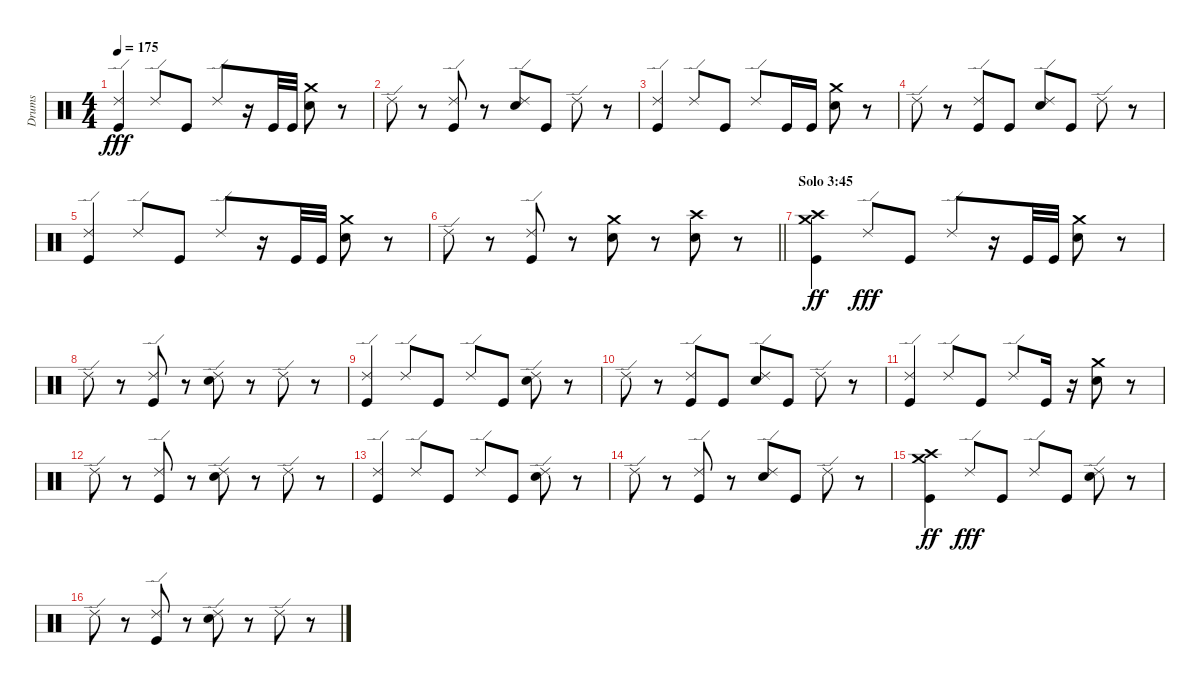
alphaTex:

\track ("Drums" "Drums") {instrument percussion}
\staff {score}
\articulation defaults
\ts (4 4)
\tempo 175
\clef neutral
\ks c
("Kick (hit)" "Ride (edge) 2").4{dy fff} "Ride (edge) 2".8 "Kick (hit)".8 "Ride (edge) 2".8 r.16 "Kick (hit)".32 "Kick (hit)".32 ("Electric Snare (hit)" "Crash medium (hit)").8 r.8 |
"Ride (edge) 2".8 r.8 ("Kick (hit)" "Ride (edge) 2").8 r.8 ("Electric Snare (hit)" "Ride (edge) 2").8 "Kick (hit)".8 "Ride (edge) 2".8 r.8 |
("Kick (hit)" "Ride (edge) 2").4 "Ride (edge) 2".8 "Kick (hit)".8 "Ride (edge) 2".8 "Kick (hit)".16 "Kick (hit)".16 ("Electric Snare (hit)" "Crash medium (hit)").8 r.8 |
"Ride (edge) 2".8 r.8 ("Kick (hit)" "Ride (edge) 2").8 "Kick (hit)".8 ("Electric Snare (hit)" "Ride (edge) 2").8 "Kick (hit)".8 "Ride (edge) 2".8 r.8 |
("Kick (hit)" "Ride (edge) 2").4 "Ride (edge) 2".8 "Kick (hit)".8 "Ride (edge) 2".8 r.16 "Kick (hit)".32 "Kick (hit)".32 ("Electric Snare (hit)" "Crash medium (hit)").8 r.8 |
\barLineRight lightlight "Ride (edge) 2".8
r.8 ("Kick (hit)" "Ride (edge) 2").8 r.8 ("Electric Snare (hit)" "Crash medium (hit)").8 r.8 ("Electric Snare (hit)" "Crash high (hit)").8 r.8 |
\section ("" "Solo 3:45")
("Kick (hit)" "Crash high (hit)" "Crash medium (hit)").4{dy ff} "Ride (edge) 2".8{dy fff} "Kick (hit)".8 "Ride (edge) 2".8 r.16 "Kick (hit)".32 "Kick (hit)".32 ("Electric Snare (hit)" "Crash medium (hit)").8 r.8 |
"Ride (edge) 2".8 r.8 ("Kick (hit)" "Ride (edge) 2").8 r.8 ("Electric Snare (hit)" "Ride (edge) 2").8 r.8 "Ride (edge) 2".8 r.8 |
("Kick (hit)" "Ride (edge) 2").4 "Ride (edge) 2".8 "Kick (hit)".8 "Ride (edge) 2".8 "Kick (hit)".8 ("Electric Snare (hit)" "Ride (edge) 2").8 r.8 |
"Ride (edge) 2".8 r.8 ("Kick (hit)" "Ride (edge) 2").8 "Kick (hit)".8 ("Electric Snare (hit)" "Ride (edge) 2").8 "Kick (hit)".8 "Ride (edge) 2".8 r.8 |
("Kick (hit)" "Ride (edge) 2").4 "Ride (edge) 2".8 "Kick (hit)".8 "Ride (edge) 2".8 "Kick (hit)".16 r.16 ("Electric Snare (hit)" "Crash medium (hit)").8 r.8 |
"Ride (edge) 2".8 r.8 ("Kick (hit)" "Ride (edge) 2").8 r.8 ("Electric Snare (hit)" "Ride (edge) 2").8 r.8 "Ride (edge) 2".8 r.8 |
("Kick (hit)" "Ride (edge) 2").4 "Ride (edge) 2".8 "Kick (hit)".8 "Ride (edge) 2".8 "Kick (hit)".8 ("Electric Snare (hit)" "Ride (edge) 2").8 r.8 |
"Ride (edge) 2".8 r.8 ("Kick (hit)" "Ride (edge) 2").8 r.8 ("Electric Snare (hit)" "Ride (edge) 2").8 "Kick (hit)".8 "Ride (edge) 2".8 r.8 |
("Kick (hit)" "Crash high (hit)" "Crash medium (hit)").4{dy ff} "Ride (edge) 2".8{dy fff} "Kick (hit)".8 "Ride (edge) 2".8 "Kick (hit)".8 ("Electric Snare (hit)" "Ride (edge) 2").8 r.8 |
"Ride (edge) 2".8 r.8 ("Kick (hit)" "Ride (edge) 2").8 r.8 ("Electric Snare (hit)" "Ride (edge) 2").8 r.8 "Ride (edge) 2".8 r.8
